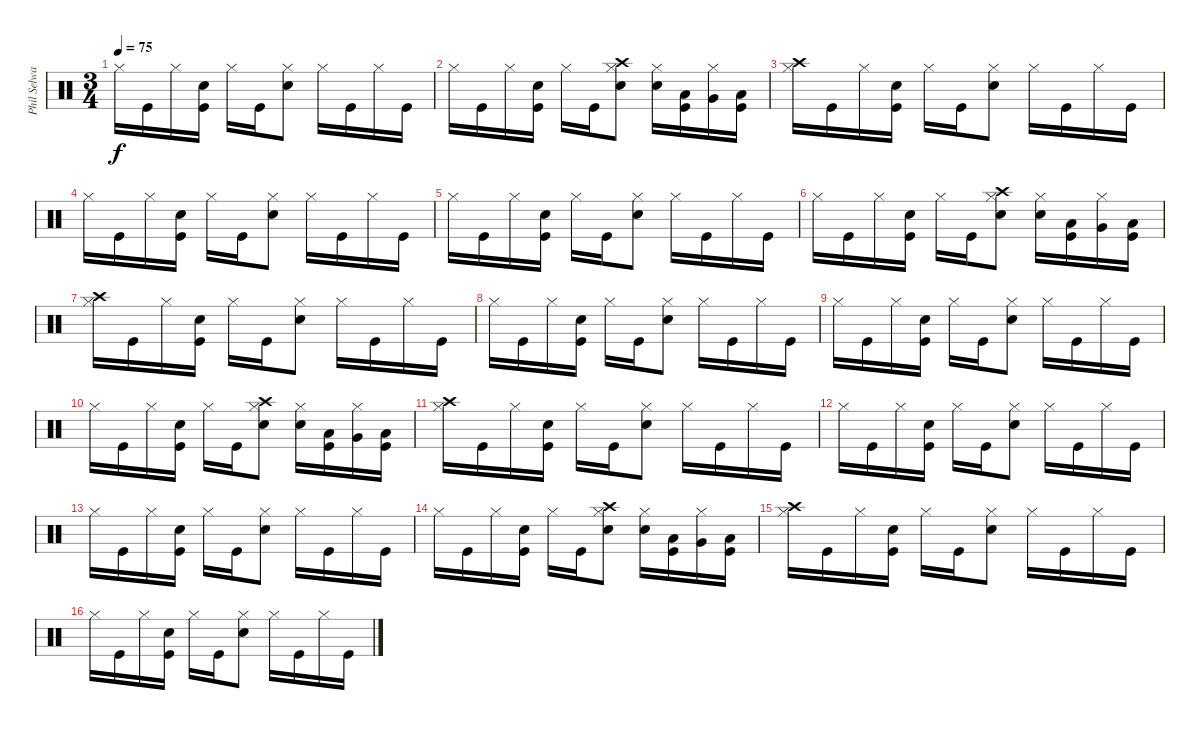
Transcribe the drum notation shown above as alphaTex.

\track ("Phil Selway" "Phil Selwa") {instrument percussion}
\staff {score}
\articulation defaults
\ts (3 4)
\tempo 75
\clef neutral
\ks c "Hi-Hat (closed)".16{dy f} "Kick (hit)".16 "Hi-Hat (closed)".16
("Kick (hit)" "Snare (hit) 2").16 "Hi-Hat (closed)".16 "Kick (hit)".16 ("Snare (hit) 2" "Hi-Hat (closed)").8 "Hi-Hat (closed)".16 "Kick (hit)".16 "Hi-Hat (closed)".16 "Kick (hit)".16 |
"Hi-Hat (closed)".16 "Kick (hit)".16 "Hi-Hat (closed)".16 ("Kick (hit)" "Snare (hit) 2").16 "Hi-Hat (closed)".16 "Kick (hit)".16 ("Snare (hit) 2" "Hi-Hat (closed)" "Crash high (hit)").8 ("Snare (hit) 2" "Hi-Hat (closed)").16 ("Kick (hit)" "Low Tom (hit)").16 ("Hi-Hat (closed)" "Very Low Tom (hit)").16 ("Kick (hit)" "Low Floor Tom (hit)").16 |
("Hi-Hat (closed)" "Crash high (hit)").16 "Kick (hit)".16 "Hi-Hat (closed)".16 ("Kick (hit)" "Snare (hit) 2").16 "Hi-Hat (closed)".16 "Kick (hit)".16 ("Snare (hit) 2" "Hi-Hat (closed)").8 "Hi-Hat (closed)".16 "Kick (hit)".16 "Hi-Hat (closed)".16 "Kick (hit)".16 |
"Hi-Hat (closed)".16 "Kick (hit)".16 "Hi-Hat (closed)".16 ("Kick (hit)" "Snare (hit) 2").16 "Hi-Hat (closed)".16 "Kick (hit)".16 ("Snare (hit) 2" "Hi-Hat (closed)").8 "Hi-Hat (closed)".16 "Kick (hit)".16 "Hi-Hat (closed)".16 "Kick (hit)".16 |
"Hi-Hat (closed)".16 "Kick (hit)".16 "Hi-Hat (closed)".16 ("Kick (hit)" "Snare (hit) 2").16 "Hi-Hat (closed)".16 "Kick (hit)".16 ("Snare (hit) 2" "Hi-Hat (closed)").8 "Hi-Hat (closed)".16 "Kick (hit)".16 "Hi-Hat (closed)".16 "Kick (hit)".16 |
"Hi-Hat (closed)".16 "Kick (hit)".16 "Hi-Hat (closed)".16 ("Kick (hit)" "Snare (hit) 2").16 "Hi-Hat (closed)".16 "Kick (hit)".16 ("Snare (hit) 2" "Hi-Hat (closed)" "Crash high (hit)").8 ("Snare (hit) 2" "Hi-Hat (closed)").16 ("Kick (hit)" "Low Tom (hit)").16 ("Hi-Hat (closed)" "Very Low Tom (hit)").16 ("Kick (hit)" "Low Floor Tom (hit)").16 |
("Hi-Hat (closed)" "Crash high (hit)").16 "Kick (hit)".16 "Hi-Hat (closed)".16 ("Kick (hit)" "Snare (hit) 2").16 "Hi-Hat (closed)".16 "Kick (hit)".16 ("Snare (hit) 2" "Hi-Hat (closed)").8 "Hi-Hat (closed)".16 "Kick (hit)".16 "Hi-Hat (closed)".16 "Kick (hit)".16 |
"Hi-Hat (closed)".16 "Kick (hit)".16 "Hi-Hat (closed)".16 ("Kick (hit)" "Snare (hit) 2").16 "Hi-Hat (closed)".16 "Kick (hit)".16 ("Snare (hit) 2" "Hi-Hat (closed)").8 "Hi-Hat (closed)".16 "Kick (hit)".16 "Hi-Hat (closed)".16 "Kick (hit)".16 |
"Hi-Hat (closed)".16 "Kick (hit)".16 "Hi-Hat (closed)".16 ("Kick (hit)" "Snare (hit) 2").16 "Hi-Hat (closed)".16 "Kick (hit)".16 ("Snare (hit) 2" "Hi-Hat (closed)").8 "Hi-Hat (closed)".16 "Kick (hit)".16 "Hi-Hat (closed)".16 "Kick (hit)".16 |
"Hi-Hat (closed)".16 "Kick (hit)".16 "Hi-Hat (closed)".16 ("Kick (hit)" "Snare (hit) 2").16 "Hi-Hat (closed)".16 "Kick (hit)".16 ("Snare (hit) 2" "Hi-Hat (closed)" "Crash high (hit)").8 ("Snare (hit) 2" "Hi-Hat (closed)").16 ("Kick (hit)" "Low Tom (hit)").16 ("Hi-Hat (closed)" "Very Low Tom (hit)").16 ("Kick (hit)" "Low Floor Tom (hit)").16 |
("Hi-Hat (closed)" "Crash high (hit)").16 "Kick (hit)".16 "Hi-Hat (closed)".16 ("Kick (hit)" "Snare (hit) 2").16 "Hi-Hat (closed)".16 "Kick (hit)".16 ("Snare (hit) 2" "Hi-Hat (closed)").8 "Hi-Hat (closed)".16 "Kick (hit)".16 "Hi-Hat (closed)".16 "Kick (hit)".16 |
"Hi-Hat (closed)".16 "Kick (hit)".16 "Hi-Hat (closed)".16 ("Kick (hit)" "Snare (hit) 2").16 "Hi-Hat (closed)".16 "Kick (hit)".16 ("Snare (hit) 2" "Hi-Hat (closed)").8 "Hi-Hat (closed)".16 "Kick (hit)".16 "Hi-Hat (closed)".16 "Kick (hit)".16 |
"Hi-Hat (closed)".16 "Kick (hit)".16 "Hi-Hat (closed)".16 ("Kick (hit)" "Snare (hit) 2").16 "Hi-Hat (closed)".16 "Kick (hit)".16 ("Snare (hit) 2" "Hi-Hat (closed)").8 "Hi-Hat (closed)".16 "Kick (hit)".16 "Hi-Hat (closed)".16 "Kick (hit)".16 |
"Hi-Hat (closed)".16 "Kick (hit)".16 "Hi-Hat (closed)".16 ("Kick (hit)" "Snare (hit) 2").16 "Hi-Hat (closed)".16 "Kick (hit)".16 ("Snare (hit) 2" "Hi-Hat (closed)" "Crash high (hit)").8 ("Snare (hit) 2" "Hi-Hat (closed)").16 ("Kick (hit)" "Low Tom (hit)").16 ("Hi-Hat (closed)" "Very Low Tom (hit)").16 ("Kick (hit)" "Low Floor Tom (hit)").16 |
("Hi-Hat (closed)" "Crash high (hit)").16 "Kick (hit)".16 "Hi-Hat (closed)".16 ("Kick (hit)" "Snare (hit) 2").16 "Hi-Hat (closed)".16 "Kick (hit)".16 ("Snare (hit) 2" "Hi-Hat (closed)").8 "Hi-Hat (closed)".16 "Kick (hit)".16 "Hi-Hat (closed)".16 "Kick (hit)".16 |
"Hi-Hat (closed)".16 "Kick (hit)".16 "Hi-Hat (closed)".16 ("Kick (hit)" "Snare (hit) 2").16 "Hi-Hat (closed)".16 "Kick (hit)".16 ("Snare (hit) 2" "Hi-Hat (closed)").8 "Hi-Hat (closed)".16 "Kick (hit)".16 "Hi-Hat (closed)".16 "Kick (hit)".16
